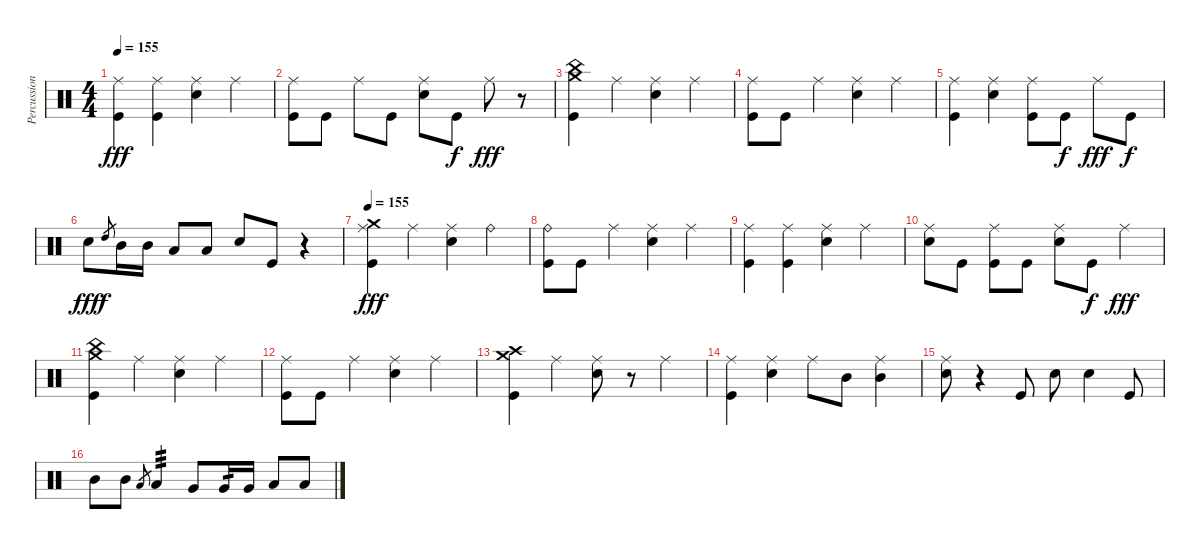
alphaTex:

\track ("Percussioni" "Percussion") {instrument percussion}
\staff {score}
\articulation defaults
\ts (4 4)
\tempo 155
\clef neutral
\ks c
("Ride (middle)" "Kick (hit)").4{dy fff} ("Ride (middle)" "Kick (hit)").4 ("Ride (middle)" "Snare (hit) 2").4 "Ride (middle)".4 |
("Ride (middle)" "Kick (hit)").8 "Kick (hit)".8 "Ride (middle)".8 "Kick (hit)".8 ("Ride (middle)" "Snare (hit) 2").8 "Kick (hit)".8{dy f} "Ride (middle)".8{dy fff} r.8 |
("China (hit)" "Crash medium (hit)" "Kick (hit)").4 "Ride (middle)".4 ("Ride (middle)" "Snare (hit) 2").4 "Ride (middle)".4 |
("Ride (middle)" "Kick (hit)").8 "Kick (hit)".8 "Ride (middle)".4 ("Ride (middle)" "Snare (hit) 2").4 "Ride (middle)".4 |
("Ride (middle)" "Kick (hit)").4 ("Ride (middle)" "Snare (hit) 2").4 ("Ride (middle)" "Kick (hit)").8 "Kick (hit)".8{dy f} "Ride (middle)".8{dy fff} "Kick (hit)".8{dy f} |
"Snare (hit) 2".8{dy fff} "High Tom (hit)".8{gr dy f} "Mid Tom (hit)".16 "Mid Tom (hit)".16 "Low Tom (hit)".8 "Low Tom (hit)".8 "Snare (hit) 2".8 "Kick (hit)".8 r.4 |
\tempo 155
("Crash medium (hit)" "Ride (middle)" "Kick (hit)").4{dy fff} "Ride (middle)".4 ("Ride (middle)" "Snare (hit) 2").4 "Ride (bell)".4 |
("Ride (bell)" "Kick (hit)").8 "Kick (hit)".8 "Ride (middle)".4 ("Ride (middle)" "Snare (hit) 2").4 "Ride (middle)".4 |
("Ride (middle)" "Kick (hit)").4 ("Ride (middle)" "Kick (hit)").4 ("Ride (middle)" "Snare (hit) 2").4 "Ride (middle)".4 |
("Ride (middle)" "Snare (hit) 2").8 "Kick (hit)".8 ("Ride (middle)" "Kick (hit)").8 "Kick (hit)".8 ("Ride (middle)" "Snare (hit) 2").8 "Kick (hit)".8{dy f} "Ride (middle)".4{dy fff} |
("China (hit)" "Crash medium (hit)" "Kick (hit)").4 "Ride (middle)".4 ("Ride (middle)" "Snare (hit) 2").4 "Ride (middle)".4 |
("Ride (middle)" "Kick (hit)").8 "Kick (hit)".8 "Ride (middle)".4 ("Ride (middle)" "Snare (hit) 2").4 "Ride (middle)".4 |
("Crash medium (hit)" "Crash high (hit)" "Kick (hit)").4 "Ride (middle)".4 ("Ride (middle)" "Snare (hit) 2").8 r.8 "Ride (middle)".4 |
("Ride (middle)" "Kick (hit)").4 ("Ride (middle)" "Snare (hit) 2").4 "Ride (middle)".8 "Mid Tom (hit)".8 ("Ride (middle)" "Mid Tom (hit)").4 |
("Ride (middle)" "Snare (hit) 2").8 r.4 "Kick (hit)".8 "Snare (hit) 2".8 "Snare (hit) 2".4 "Kick (hit)".8 |
"Mid Tom (hit)".8 "Mid Tom (hit)".8 "Low Tom (hit)".8{gr} "Low Tom (hit)".4{tp 3} "Very Low Tom (hit)".8 "Very Low Tom (hit)".16{tp 1} "Very Low Tom (hit)".16 "Low Floor Tom (hit)".8 "Low Floor Tom (hit)".8
